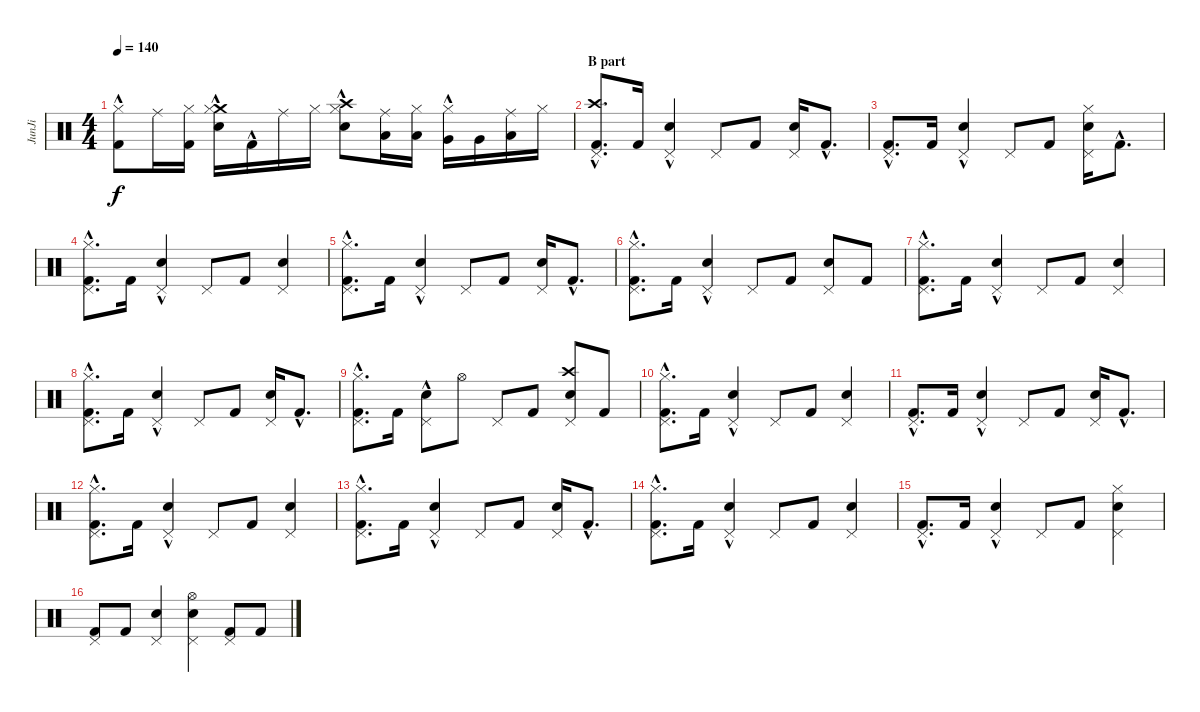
\track ("JunJi" "JunJi") {instrument percussion}
\staff {score}
\articulation defaults
\ts (4 4)
\tempo 140
\clef neutral
\ks c
("Hi-Hat (closed)"{hac} "Kick (hit) 2"{hac}).8{dy f} "Ride (middle)".16 ("Hi-Hat (closed)" "Kick (hit) 2").16 ("Crash medium (hit)" "Electric Snare (hit)" "Hi-Hat (closed)"{hac}).16 "Kick (hit) 2"{hac}.16 "Ride (middle)".16 "Hi-Hat (closed)".16 ("Electric Snare (hit)" "Hi-Hat (closed)"{hac} "Crash high (hit)").8 ("Low Tom (hit)" "Ride (middle)").16 ("Low Tom (hit)" "Hi-Hat (closed)").16 ("Very Low Tom (hit)" "Hi-Hat (closed)"{hac}).16 "Very Low Tom (hit)".16 ("Low Floor Tom (hit)" "Ride (middle)").16 "Hi-Hat (closed)".16 |
\section ("" "B part")
("Kick (hit) 2"{hac} "Crash high (hit)" "Pedal Hi-Hat (hit)").8{d} "Kick (hit) 2".16 ("Pedal Hi-Hat (hit)" "Electric Snare (hit)"{hac}).4 "Pedal Hi-Hat (hit)".8 "Kick (hit) 2".8 ("Pedal Hi-Hat (hit)" "Electric Snare (hit)").16 "Kick (hit) 2"{hac}.8{d} |
("Pedal Hi-Hat (hit)" "Kick (hit) 2"{hac}).8{d} "Kick (hit) 2".16 ("Electric Snare (hit)"{hac} "Pedal Hi-Hat (hit)").4 "Pedal Hi-Hat (hit)".8 "Kick (hit) 2".8 ("Pedal Hi-Hat (hit)" "Electric Snare (hit)" "Hi-Hat (closed)").16 "Kick (hit) 2"{hac}.8{d} |
("Kick (hit) 2"{hac} "Pedal Hi-Hat (hit)" "Hi-Hat (closed)").8{d} "Kick (hit) 2".16 ("Pedal Hi-Hat (hit)" "Electric Snare (hit)"{hac}).4 "Pedal Hi-Hat (hit)".8 "Kick (hit) 2".8 ("Electric Snare (hit)" "Pedal Hi-Hat (hit)").4 |
("Kick (hit) 2"{hac} "Pedal Hi-Hat (hit)" "Hi-Hat (closed)").8{d} "Kick (hit) 2".16 ("Electric Snare (hit)"{hac} "Pedal Hi-Hat (hit)").4 "Pedal Hi-Hat (hit)".8 "Kick (hit) 2".8 ("Pedal Hi-Hat (hit)" "Electric Snare (hit)").16 "Kick (hit) 2"{hac}.8{d} |
("Kick (hit) 2"{hac} "Pedal Hi-Hat (hit)" "Hi-Hat (closed)").8{d} "Kick (hit) 2".16 ("Electric Snare (hit)"{hac} "Pedal Hi-Hat (hit)").4 "Pedal Hi-Hat (hit)".8 "Kick (hit) 2".8 ("Pedal Hi-Hat (hit)" "Electric Snare (hit)").8 "Kick (hit) 2".8 |
("Hi-Hat (closed)" "Kick (hit) 2"{hac} "Pedal Hi-Hat (hit)").8{d} "Kick (hit) 2".16 ("Pedal Hi-Hat (hit)" "Electric Snare (hit)"{hac}).4 "Pedal Hi-Hat (hit)".8 "Kick (hit) 2".8 ("Electric Snare (hit)" "Pedal Hi-Hat (hit)").4 |
("Hi-Hat (closed)" "Pedal Hi-Hat (hit)" "Kick (hit) 2"{hac}).8{d} "Kick (hit) 2".16 ("Electric Snare (hit)"{hac} "Pedal Hi-Hat (hit)").4 "Pedal Hi-Hat (hit)".8 "Kick (hit) 2".8 ("Electric Snare (hit)" "Pedal Hi-Hat (hit)").16 "Kick (hit) 2"{hac}.8{d} |
("Pedal Hi-Hat (hit)" "Hi-Hat (closed)" "Kick (hit) 2"{hac}).8{d} "Kick (hit) 2".16 ("Pedal Hi-Hat (hit)" "Electric Snare (hit)"{hac}).8 "Hi-Hat (open)".8 "Pedal Hi-Hat (hit)".8 "Kick (hit) 2".8 ("Pedal Hi-Hat (hit)" "Crash high (hit)" "Electric Snare (hit)").8 "Kick (hit) 2".8 |
("Kick (hit) 2"{hac} "Pedal Hi-Hat (hit)" "Hi-Hat (closed)").8{d} "Kick (hit) 2".16 ("Pedal Hi-Hat (hit)" "Electric Snare (hit)"{hac}).4 "Pedal Hi-Hat (hit)".8 "Kick (hit) 2".8 ("Pedal Hi-Hat (hit)" "Electric Snare (hit)").4 |
("Kick (hit) 2"{hac} "Pedal Hi-Hat (hit)").8{d} "Kick (hit) 2".16 ("Electric Snare (hit)"{hac} "Pedal Hi-Hat (hit)").4 "Pedal Hi-Hat (hit)".8 "Kick (hit) 2".8 ("Pedal Hi-Hat (hit)" "Electric Snare (hit)").16 "Kick (hit) 2"{hac}.8{d} |
("Kick (hit) 2"{hac} "Pedal Hi-Hat (hit)" "Hi-Hat (closed)").8{d} "Kick (hit) 2".16 ("Pedal Hi-Hat (hit)" "Electric Snare (hit)"{hac}).4 "Pedal Hi-Hat (hit)".8 "Kick (hit) 2".8 ("Pedal Hi-Hat (hit)" "Electric Snare (hit)").4 |
("Kick (hit) 2"{hac} "Pedal Hi-Hat (hit)" "Hi-Hat (closed)").8{d} "Kick (hit) 2".16 ("Electric Snare (hit)"{hac} "Pedal Hi-Hat (hit)").4 "Pedal Hi-Hat (hit)".8 "Kick (hit) 2".8 ("Electric Snare (hit)" "Pedal Hi-Hat (hit)").16 "Kick (hit) 2"{hac}.8{d} |
("Kick (hit) 2"{hac} "Pedal Hi-Hat (hit)" "Hi-Hat (closed)").8{d} "Kick (hit) 2".16 ("Pedal Hi-Hat (hit)" "Electric Snare (hit)"{hac}).4 "Pedal Hi-Hat (hit)".8 "Kick (hit) 2".8 ("Pedal Hi-Hat (hit)" "Electric Snare (hit)").4 |
("Pedal Hi-Hat (hit)" "Kick (hit) 2"{hac}).8{d} "Kick (hit) 2".16 ("Pedal Hi-Hat (hit)" "Electric Snare (hit)"{hac}).4 "Pedal Hi-Hat (hit)".8 "Kick (hit) 2".8 ("Pedal Hi-Hat (hit)" "Electric Snare (hit)" "Hi-Hat (closed)").4 |
("Kick (hit) 2" "Pedal Hi-Hat (hit)").8 "Kick (hit) 2".8 ("Electric Snare (hit)" "Pedal Hi-Hat (hit)").4 ("Pedal Hi-Hat (hit)" "Electric Snare (hit)" "Hi-Hat (open)").4 ("Kick (hit) 2" "Pedal Hi-Hat (hit)").8 "Kick (hit) 2".8
